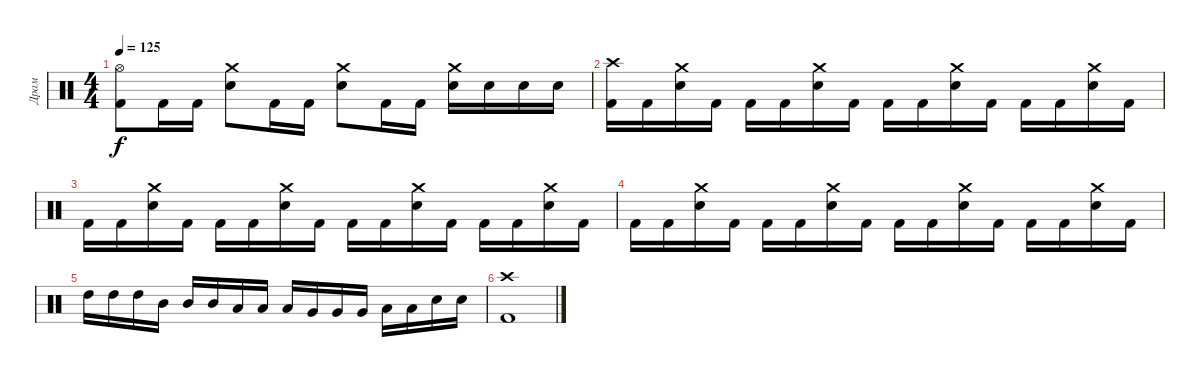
\track ("Драм" "Драм") {instrument percussion}
\staff {score}
\articulation defaults
\ts (4 4)
\tempo 125
\clef neutral
\ks c
("Hi-Hat (open)" "Kick (hit) 2").8{dy f} "Kick (hit) 2".16 "Kick (hit) 2".16 ("Snare (hit) 2" "Crash medium (hit)").8 "Kick (hit) 2".16 "Kick (hit) 2".16 ("Snare (hit) 2" "Crash medium (hit)").8 "Kick (hit) 2".16 "Kick (hit) 2".16 ("Snare (hit) 2" "Crash medium (hit)").16 "Snare (hit) 2".16 "Snare (hit) 2".16 "Snare (hit) 2".16 |
("Kick (hit) 2" "Crash high (hit)").16 "Kick (hit) 2".16 ("Snare (hit) 2" "Crash medium (hit)").16 "Kick (hit) 2".16 "Kick (hit) 2".16 "Kick (hit) 2".16 ("Snare (hit) 2" "Crash medium (hit)").16 "Kick (hit) 2".16 "Kick (hit) 2".16 "Kick (hit) 2".16 ("Snare (hit) 2" "Crash medium (hit)").16 "Kick (hit) 2".16 "Kick (hit) 2".16 "Kick (hit) 2".16 ("Snare (hit) 2" "Crash medium (hit)").16 "Kick (hit) 2".16 |
"Kick (hit) 2".16 "Kick (hit) 2".16 ("Snare (hit) 2" "Crash medium (hit)").16 "Kick (hit) 2".16 "Kick (hit) 2".16 "Kick (hit) 2".16 ("Snare (hit) 2" "Crash medium (hit)").16 "Kick (hit) 2".16 "Kick (hit) 2".16 "Kick (hit) 2".16 ("Snare (hit) 2" "Crash medium (hit)").16 "Kick (hit) 2".16 "Kick (hit) 2".16 "Kick (hit) 2".16 ("Snare (hit) 2" "Crash medium (hit)").16 "Kick (hit) 2".16 |
"Kick (hit) 2".16 "Kick (hit) 2".16 ("Snare (hit) 2" "Crash medium (hit)").16 "Kick (hit) 2".16 "Kick (hit) 2".16 "Kick (hit) 2".16 ("Snare (hit) 2" "Crash medium (hit)").16 "Kick (hit) 2".16 "Kick (hit) 2".16 "Kick (hit) 2".16 ("Snare (hit) 2" "Crash medium (hit)").16 "Kick (hit) 2".16 "Kick (hit) 2".16 "Kick (hit) 2".16 ("Snare (hit) 2" "Crash medium (hit)").16 "Kick (hit) 2".16 |
"High Tom (hit)".16 "High Tom (hit)".16 "High Tom (hit)".16 "Mid Tom (hit)".16 "Mid Tom (hit)".16 "Mid Tom (hit)".16 "Low Tom (hit)".16 "Low Tom (hit)".16 "Low Tom (hit)".16 "Very Low Tom (hit)".16 "Very Low Tom (hit)".16 "Very Low Tom (hit)".16 "Low Floor Tom (hit)".16 "Low Floor Tom (hit)".16 "Snare (hit) 2".16 "Snare (hit) 2".16 |
("Kick (hit) 2" "Crash high (hit)").1
